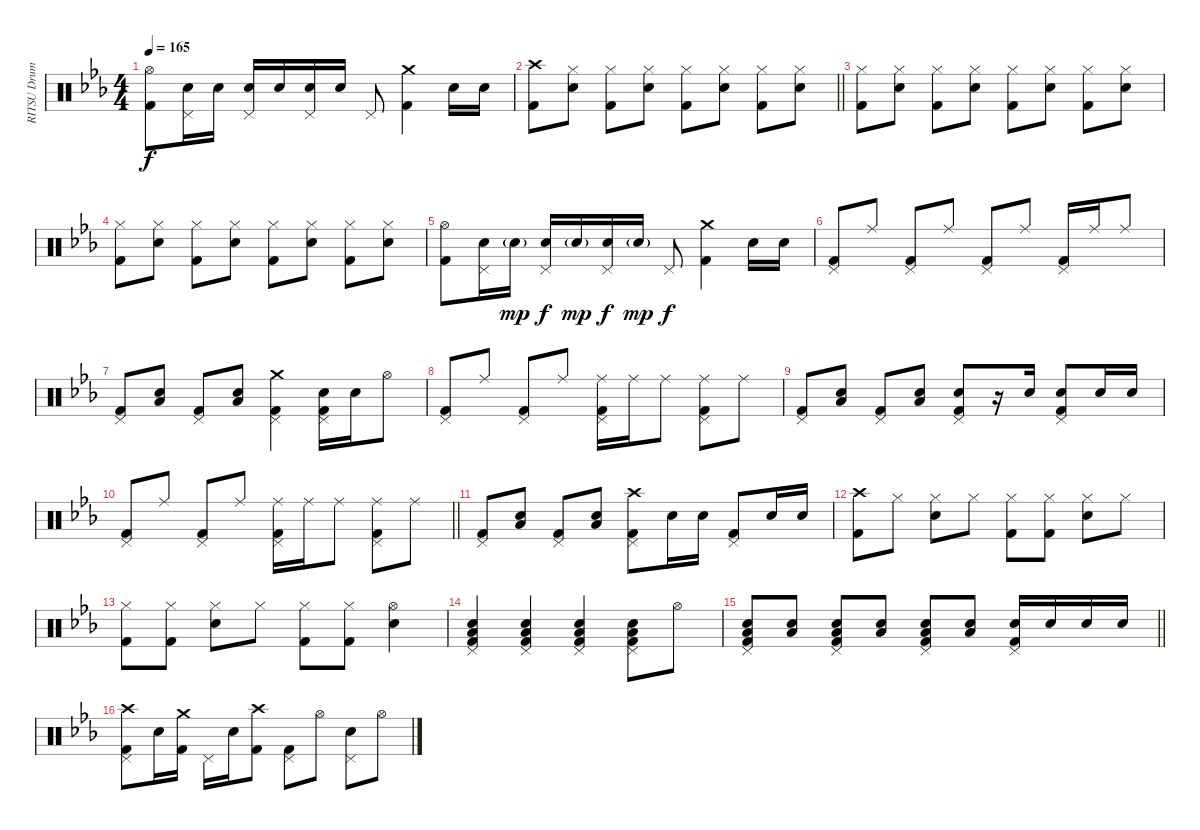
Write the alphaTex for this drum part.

\track ("RITSU Drums" "RITSU Drum") {instrument percussion}
\staff {score}
\articulation defaults
\ts (4 4)
\tempo 165
\clef neutral
\ks eb
("Hi-Hat (open)" "Kick (hit) 2").8{dy f} ("Pedal Hi-Hat (hit)" "Electric Snare (hit)").16 "Electric Snare (hit)".16 ("Pedal Hi-Hat (hit)" "Electric Snare (hit)").16 "Electric Snare (hit)".16 ("Pedal Hi-Hat (hit)" "Electric Snare (hit)").16 "Electric Snare (hit)".16 "Pedal Hi-Hat (hit)".8 ("Crash medium (hit)" "Kick (hit) 2").4 "Electric Snare (hit)".16 "Electric Snare (hit)".16 |
\barLineRight lightlight
("Crash high (hit)" "Kick (hit) 2").8 ("Hi-Hat (closed)" "Electric Snare (hit)").8 ("Hi-Hat (closed)" "Kick (hit) 2").8 ("Hi-Hat (closed)" "Electric Snare (hit)").8 ("Hi-Hat (closed)" "Kick (hit) 2").8 ("Hi-Hat (closed)" "Electric Snare (hit)").8 ("Hi-Hat (closed)" "Kick (hit) 2").8 ("Hi-Hat (closed)" "Electric Snare (hit)").8 |
("Hi-Hat (closed)" "Kick (hit) 2").8 ("Hi-Hat (closed)" "Electric Snare (hit)").8 ("Hi-Hat (closed)" "Kick (hit) 2").8 ("Hi-Hat (closed)" "Electric Snare (hit)").8 ("Hi-Hat (closed)" "Kick (hit) 2").8 ("Hi-Hat (closed)" "Electric Snare (hit)").8 ("Hi-Hat (closed)" "Kick (hit) 2").8 ("Hi-Hat (closed)" "Electric Snare (hit)").8 |
("Hi-Hat (closed)" "Kick (hit) 2").8 ("Hi-Hat (closed)" "Electric Snare (hit)").8 ("Hi-Hat (closed)" "Kick (hit) 2").8 ("Hi-Hat (closed)" "Electric Snare (hit)").8 ("Hi-Hat (closed)" "Kick (hit) 2").8 ("Hi-Hat (closed)" "Electric Snare (hit)").8 ("Hi-Hat (closed)" "Kick (hit) 2").8 ("Hi-Hat (closed)" "Electric Snare (hit)").8 |
("Hi-Hat (open)" "Kick (hit) 2").8 ("Pedal Hi-Hat (hit)" "Electric Snare (hit)").16 "Electric Snare (hit)"{g}.16{dy mp} ("Pedal Hi-Hat (hit)" "Electric Snare (hit)").16{dy f} "Electric Snare (hit)"{g}.16{dy mp} ("Pedal Hi-Hat (hit)" "Electric Snare (hit)").16{dy f} "Electric Snare (hit)"{g}.16{dy mp} "Pedal Hi-Hat (hit)".8{dy f} ("Crash medium (hit)" "Kick (hit) 2").4 "Electric Snare (hit)".16 "Electric Snare (hit)".16 |
("Pedal Hi-Hat (hit)" "Kick (hit) 2").8 "Ride (middle)".8 ("Pedal Hi-Hat (hit)" "Kick (hit) 2").8 "Ride (middle)".8 ("Pedal Hi-Hat (hit)" "Kick (hit) 2").8 "Ride (middle)".8 ("Pedal Hi-Hat (hit)" "Kick (hit) 2").16 "Ride (middle)".16 "Ride (middle)".8 |
("Pedal Hi-Hat (hit)" "Kick (hit) 2").8 ("Electric Snare (hit)" "Low Floor Tom (hit)").8 ("Pedal Hi-Hat (hit)" "Kick (hit) 2").8 ("Electric Snare (hit)" "Low Floor Tom (hit)").8 ("Crash medium (hit)" "Pedal Hi-Hat (hit)" "Kick (hit) 2").4 ("Pedal Hi-Hat (hit)" "Electric Snare (hit)" "Kick (hit) 2").16 "Electric Snare (hit)".16 "Hi-Hat (open)".8 |
("Pedal Hi-Hat (hit)" "Kick (hit) 2").8 "Ride (middle)".8 ("Pedal Hi-Hat (hit)" "Kick (hit) 2").8 "Ride (middle)".8 ("Ride (middle)" "Pedal Hi-Hat (hit)" "Kick (hit) 2").16 "Ride (middle)".16 "Ride (middle)".8 ("Ride (middle)" "Pedal Hi-Hat (hit)" "Kick (hit) 2").8 "Ride (middle)".8 |
("Pedal Hi-Hat (hit)" "Kick (hit) 2").8 ("Electric Snare (hit)" "Low Floor Tom (hit)").8 ("Pedal Hi-Hat (hit)" "Kick (hit) 2").8 ("Electric Snare (hit)" "Low Floor Tom (hit)").8 ("Pedal Hi-Hat (hit)" "Electric Snare (hit)" "Kick (hit) 2").8 r.16 "Electric Snare (hit)".16 ("Pedal Hi-Hat (hit)" "Electric Snare (hit)" "Kick (hit) 2").8 "Electric Snare (hit)".16 "Electric Snare (hit)".16 |
\barLineRight lightlight
("Pedal Hi-Hat (hit)" "Kick (hit) 2").8 "Ride (middle)".8 ("Pedal Hi-Hat (hit)" "Kick (hit) 2").8 "Ride (middle)".8 ("Ride (middle)" "Pedal Hi-Hat (hit)" "Kick (hit) 2").16 "Ride (middle)".16 "Ride (middle)".8 ("Ride (middle)" "Pedal Hi-Hat (hit)" "Kick (hit) 2").8 "Ride (middle)".8 |
("Pedal Hi-Hat (hit)" "Kick (hit) 2").8 ("Electric Snare (hit)" "Low Floor Tom (hit)").8 ("Pedal Hi-Hat (hit)" "Kick (hit) 2").8 ("Electric Snare (hit)" "Low Floor Tom (hit)").8 ("Crash high (hit)" "Pedal Hi-Hat (hit)" "Kick (hit) 2").8 "Electric Snare (hit)".16 "Electric Snare (hit)".16 ("Pedal Hi-Hat (hit)" "Kick (hit) 2").8 "Electric Snare (hit)".16 "Electric Snare (hit)".16 |
("Crash high (hit)" "Kick (hit) 2").8 "Hi-Hat (closed)".8 ("Hi-Hat (closed)" "Electric Snare (hit)").8 "Hi-Hat (closed)".8 ("Hi-Hat (closed)" "Kick (hit) 2").8 ("Hi-Hat (closed)" "Kick (hit) 2").8 ("Hi-Hat (closed)" "Electric Snare (hit)").8 "Hi-Hat (closed)".8 |
("Hi-Hat (closed)" "Kick (hit) 2").8 ("Hi-Hat (closed)" "Kick (hit) 2").8 ("Hi-Hat (closed)" "Electric Snare (hit)").8 "Hi-Hat (closed)".8 ("Hi-Hat (closed)" "Kick (hit) 2").8 ("Hi-Hat (closed)" "Kick (hit) 2").8 ("Hi-Hat (open)" "Electric Snare (hit)").4 |
("Pedal Hi-Hat (hit)" "Electric Snare (hit)" "Low Floor Tom (hit)" "Kick (hit) 2").4 ("Pedal Hi-Hat (hit)" "Electric Snare (hit)" "Low Floor Tom (hit)" "Kick (hit) 2").4 ("Pedal Hi-Hat (hit)" "Electric Snare (hit)" "Low Floor Tom (hit)" "Kick (hit) 2").4 ("Pedal Hi-Hat (hit)" "Electric Snare (hit)" "Low Floor Tom (hit)" "Kick (hit) 2").8 "Hi-Hat (open)".8 |
\barLineRight lightlight
("Pedal Hi-Hat (hit)" "Electric Snare (hit)" "Low Floor Tom (hit)" "Kick (hit) 2").8 ("Electric Snare (hit)" "Low Floor Tom (hit)").8 ("Pedal Hi-Hat (hit)" "Electric Snare (hit)" "Low Floor Tom (hit)" "Kick (hit) 2").8 ("Electric Snare (hit)" "Low Floor Tom (hit)").8 ("Pedal Hi-Hat (hit)" "Electric Snare (hit)" "Low Floor Tom (hit)" "Kick (hit) 2").8 ("Electric Snare (hit)" "Low Floor Tom (hit)").8 ("Pedal Hi-Hat (hit)" "Electric Snare (hit)" "Kick (hit) 2").16 "Electric Snare (hit)".16 "Electric Snare (hit)".16 "Electric Snare (hit)".16 |
("Crash high (hit)" "Pedal Hi-Hat (hit)" "Kick (hit) 2").8 "Electric Snare (hit)".16 ("Crash medium (hit)" "Kick (hit) 2").16 "Pedal Hi-Hat (hit)".16 "Electric Snare (hit)".16 ("Crash high (hit)" "Kick (hit) 2").8 ("Pedal Hi-Hat (hit)" "Kick (hit) 2").8 "Hi-Hat (open)".8 ("Pedal Hi-Hat (hit)" "Electric Snare (hit)").8 "Hi-Hat (open)".8
